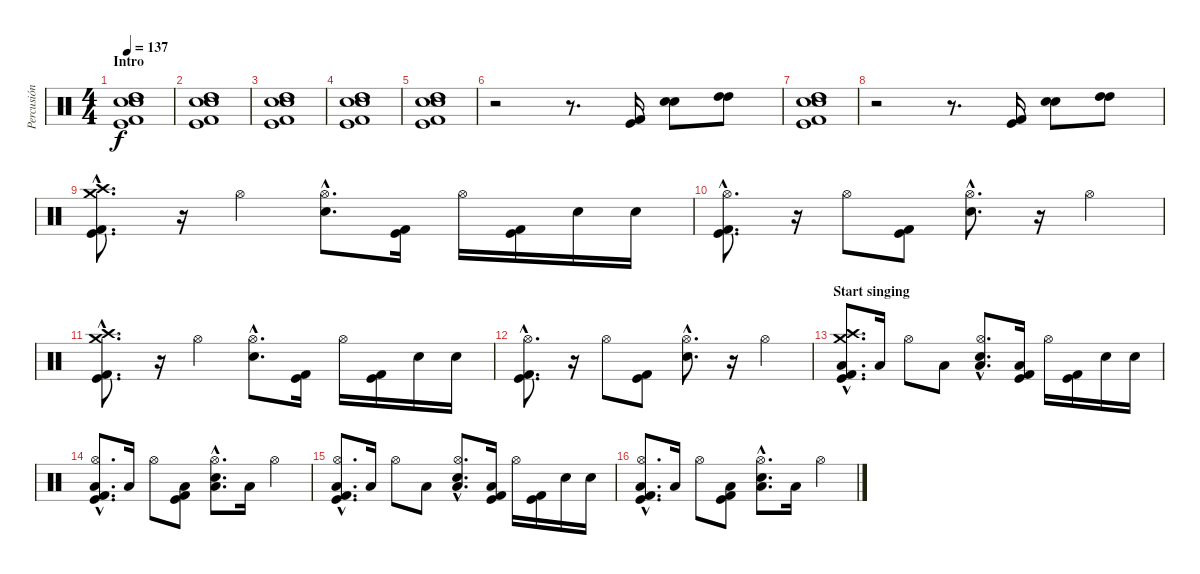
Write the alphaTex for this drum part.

\track ("Percusión" "Percusión") {instrument percussion}
\staff {score}
\articulation defaults
\ts (4 4)
\section ("" "Intro")
\tempo 137
\clef neutral
\ks c
("High Tom (hit)" "High Tom (hit)" "Electric Snare (hit)" "Electric Snare (hit)" "Kick (hit) 2" "Kick (hit)").1{dy f} |
("High Tom (hit)" "High Tom (hit)" "Electric Snare (hit)" "Electric Snare (hit)" "Kick (hit) 2" "Kick (hit)").1 |
("High Tom (hit)" "High Tom (hit)" "Electric Snare (hit)" "Electric Snare (hit)" "Kick (hit) 2" "Kick (hit)").1 |
("High Tom (hit)" "High Tom (hit)" "Electric Snare (hit)" "Electric Snare (hit)" "Kick (hit) 2" "Kick (hit)").1 |
("High Tom (hit)" "High Tom (hit)" "Electric Snare (hit)" "Electric Snare (hit)" "Kick (hit) 2" "Kick (hit)").1 |
r.2 r.8{d} ("Kick (hit)" "Kick (hit) 2").16 ("Electric Snare (hit)" "Electric Snare (hit)").8 ("High Tom (hit)" "High Tom (hit)").8 |
("High Tom (hit)" "High Tom (hit)" "Electric Snare (hit)" "Electric Snare (hit)" "Kick (hit) 2" "Kick (hit)").1 |
r.2 r.8{d} ("Kick (hit)" "Kick (hit) 2").16 ("Electric Snare (hit)" "Electric Snare (hit)").8 ("High Tom (hit)" "High Tom (hit)").8 |
("Crash medium (hit)"{hac} "Crash high (hit)"{hac} "Kick (hit) 2"{hac} "Kick (hit)"{hac}).8{d} r.16 "Hi-Hat (open)".4 ("Hi-Hat (open)"{hac} "Electric Snare (hit)"{hac}).8{d} ("Kick (hit)" "Kick (hit) 2").16 "Hi-Hat (open)".16 ("Kick (hit) 2" "Kick (hit)").16 "Electric Snare (hit)".16 "Electric Snare (hit)".16 |
("Hi-Hat (open)"{hac} "Kick (hit) 2"{hac} "Kick (hit)"{hac}).8{d} r.16 "Hi-Hat (open)".8 ("Kick (hit)" "Kick (hit) 2").8 ("Hi-Hat (open)"{hac} "Electric Snare (hit)"{hac}).8{d} r.16 "Hi-Hat (open)".4 |
("Crash medium (hit)"{hac} "Crash high (hit)"{hac} "Kick (hit) 2"{hac} "Kick (hit)"{hac}).8{d} r.16 "Hi-Hat (open)".4 ("Hi-Hat (open)"{hac} "Electric Snare (hit)"{hac}).8{d} ("Kick (hit)" "Kick (hit) 2").16 "Hi-Hat (open)".16 ("Kick (hit) 2" "Kick (hit)").16 "Electric Snare (hit)".16 "Electric Snare (hit)".16 |
("Hi-Hat (open)"{hac} "Kick (hit) 2"{hac} "Kick (hit)"{hac}).8{d} r.16 "Hi-Hat (open)".8 ("Kick (hit)" "Kick (hit) 2").8 ("Hi-Hat (open)"{hac} "Electric Snare (hit)"{hac}).8{d} r.16 "Hi-Hat (open)".4 |
\section ("" "Start singing")
("Crash medium (hit)"{hac} "Crash high (hit)"{hac} "Low Floor Tom (hit)"{hac} "Kick (hit) 2"{hac} "Kick (hit)"{hac}).8{d} "Low Floor Tom (hit)".16 "Hi-Hat (open)".8 "Low Floor Tom (hit)".8 ("Hi-Hat (open)"{hac} "Electric Snare (hit)"{hac} "Low Floor Tom (hit)"{hac}).8{d} ("Low Floor Tom (hit)" "Kick (hit)" "Kick (hit) 2").16 "Hi-Hat (open)".16 ("Kick (hit) 2" "Kick (hit)").16 "Electric Snare (hit)".16 "Electric Snare (hit)".16 |
("Hi-Hat (open)"{hac} "Low Floor Tom (hit)"{hac} "Kick (hit) 2"{hac} "Kick (hit)"{hac}).8{d} "Low Floor Tom (hit)".16 "Hi-Hat (open)".8 ("Low Floor Tom (hit)" "Kick (hit)" "Kick (hit) 2").8 ("Hi-Hat (open)"{hac} "Electric Snare (hit)"{hac} "Low Floor Tom (hit)"{hac}).8{d} "Low Floor Tom (hit)".16 "Hi-Hat (open)".4 |
("Hi-Hat (open)"{hac} "Low Floor Tom (hit)"{hac} "Kick (hit) 2"{hac} "Kick (hit)"{hac}).8{d} "Low Floor Tom (hit)".16 "Hi-Hat (open)".8 "Low Floor Tom (hit)".8 ("Hi-Hat (open)"{hac} "Electric Snare (hit)"{hac} "Low Floor Tom (hit)"{hac}).8{d} ("Low Floor Tom (hit)" "Kick (hit)" "Kick (hit) 2").16 "Hi-Hat (open)".16 ("Kick (hit) 2" "Kick (hit)").16 "Electric Snare (hit)".16 "Electric Snare (hit)".16 |
("Hi-Hat (open)"{hac} "Low Floor Tom (hit)"{hac} "Kick (hit) 2"{hac} "Kick (hit)"{hac}).8{d} "Low Floor Tom (hit)".16 "Hi-Hat (open)".8 ("Low Floor Tom (hit)" "Kick (hit)" "Kick (hit) 2").8 ("Hi-Hat (open)"{hac} "Electric Snare (hit)"{hac} "Low Floor Tom (hit)"{hac}).8{d} "Low Floor Tom (hit)".16 "Hi-Hat (open)".4
